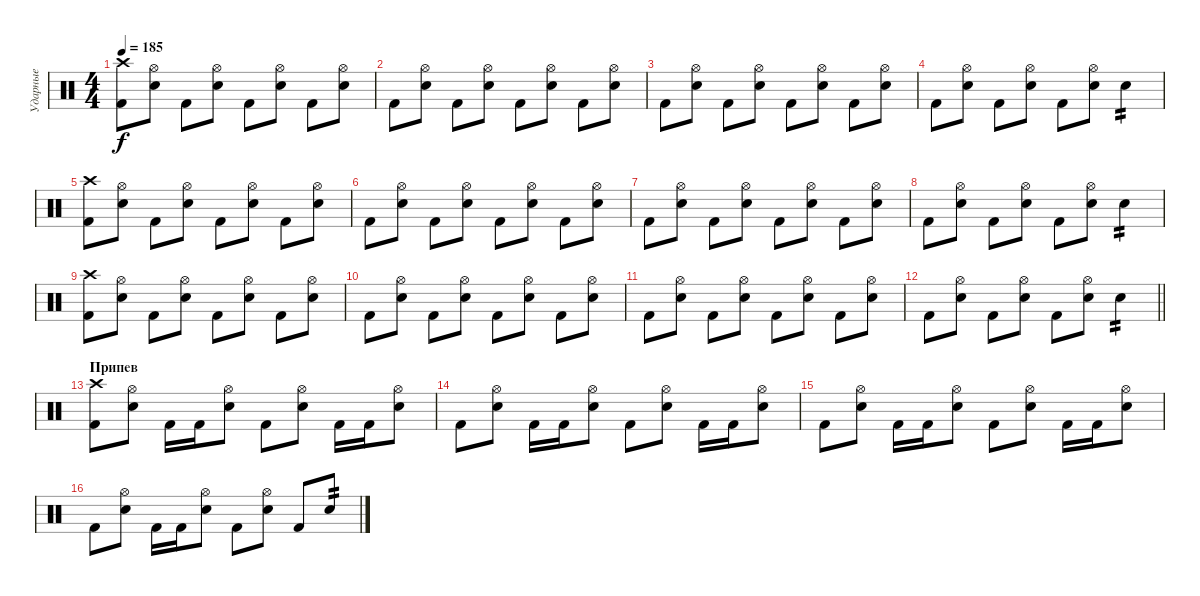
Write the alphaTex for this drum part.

\track ("Ударные" "Ударные") {instrument percussion}
\staff {score}
\articulation defaults
\ts (4 4)
\tempo 185
\clef neutral
\ks c
("Crash high (hit)" "Kick (hit) 2").8{dy f} ("Hi-Hat (open)" "Electric Snare (hit)").8 "Kick (hit) 2".8 ("Hi-Hat (open)" "Electric Snare (hit)").8 "Kick (hit) 2".8 ("Hi-Hat (open)" "Electric Snare (hit)").8 "Kick (hit) 2".8 ("Hi-Hat (open)" "Electric Snare (hit)").8 |
"Kick (hit) 2".8 ("Hi-Hat (open)" "Electric Snare (hit)").8 "Kick (hit) 2".8 ("Hi-Hat (open)" "Electric Snare (hit)").8 "Kick (hit) 2".8 ("Hi-Hat (open)" "Electric Snare (hit)").8 "Kick (hit) 2".8 ("Hi-Hat (open)" "Electric Snare (hit)").8 |
"Kick (hit) 2".8 ("Hi-Hat (open)" "Electric Snare (hit)").8 "Kick (hit) 2".8 ("Hi-Hat (open)" "Electric Snare (hit)").8 "Kick (hit) 2".8 ("Hi-Hat (open)" "Electric Snare (hit)").8 "Kick (hit) 2".8 ("Hi-Hat (open)" "Electric Snare (hit)").8 |
"Kick (hit) 2".8 ("Hi-Hat (open)" "Electric Snare (hit)").8 "Kick (hit) 2".8 ("Hi-Hat (open)" "Electric Snare (hit)").8 "Kick (hit) 2".8 ("Hi-Hat (open)" "Electric Snare (hit)").8 "Electric Snare (hit)".4{tp 2} |
("Crash high (hit)" "Kick (hit) 2").8 ("Hi-Hat (open)" "Electric Snare (hit)").8 "Kick (hit) 2".8 ("Hi-Hat (open)" "Electric Snare (hit)").8 "Kick (hit) 2".8 ("Hi-Hat (open)" "Electric Snare (hit)").8 "Kick (hit) 2".8 ("Hi-Hat (open)" "Electric Snare (hit)").8 |
"Kick (hit) 2".8 ("Hi-Hat (open)" "Electric Snare (hit)").8 "Kick (hit) 2".8 ("Hi-Hat (open)" "Electric Snare (hit)").8 "Kick (hit) 2".8 ("Hi-Hat (open)" "Electric Snare (hit)").8 "Kick (hit) 2".8 ("Hi-Hat (open)" "Electric Snare (hit)").8 |
"Kick (hit) 2".8 ("Hi-Hat (open)" "Electric Snare (hit)").8 "Kick (hit) 2".8 ("Hi-Hat (open)" "Electric Snare (hit)").8 "Kick (hit) 2".8 ("Hi-Hat (open)" "Electric Snare (hit)").8 "Kick (hit) 2".8 ("Hi-Hat (open)" "Electric Snare (hit)").8 |
"Kick (hit) 2".8 ("Hi-Hat (open)" "Electric Snare (hit)").8 "Kick (hit) 2".8 ("Hi-Hat (open)" "Electric Snare (hit)").8 "Kick (hit) 2".8 ("Hi-Hat (open)" "Electric Snare (hit)").8 "Electric Snare (hit)".4{tp 2} |
("Crash high (hit)" "Kick (hit) 2").8 ("Hi-Hat (open)" "Electric Snare (hit)").8 "Kick (hit) 2".8 ("Hi-Hat (open)" "Electric Snare (hit)").8 "Kick (hit) 2".8 ("Hi-Hat (open)" "Electric Snare (hit)").8 "Kick (hit) 2".8 ("Hi-Hat (open)" "Electric Snare (hit)").8 |
"Kick (hit) 2".8 ("Hi-Hat (open)" "Electric Snare (hit)").8 "Kick (hit) 2".8 ("Hi-Hat (open)" "Electric Snare (hit)").8 "Kick (hit) 2".8 ("Hi-Hat (open)" "Electric Snare (hit)").8 "Kick (hit) 2".8 ("Hi-Hat (open)" "Electric Snare (hit)").8 |
"Kick (hit) 2".8 ("Hi-Hat (open)" "Electric Snare (hit)").8 "Kick (hit) 2".8 ("Hi-Hat (open)" "Electric Snare (hit)").8 "Kick (hit) 2".8 ("Hi-Hat (open)" "Electric Snare (hit)").8 "Kick (hit) 2".8 ("Hi-Hat (open)" "Electric Snare (hit)").8 |
\barLineRight lightlight "Kick (hit) 2".8
("Hi-Hat (open)" "Electric Snare (hit)").8 "Kick (hit) 2".8 ("Hi-Hat (open)" "Electric Snare (hit)").8 "Kick (hit) 2".8 ("Hi-Hat (open)" "Electric Snare (hit)").8 "Electric Snare (hit)".4{tp 2} |
\section ("" "Припев")
("Crash high (hit)" "Kick (hit) 2").8 ("Hi-Hat (open)" "Electric Snare (hit)").8 "Kick (hit) 2".16 "Kick (hit) 2".16 ("Hi-Hat (open)" "Electric Snare (hit)").8 "Kick (hit) 2".8 ("Hi-Hat (open)" "Electric Snare (hit)").8 "Kick (hit) 2".16 "Kick (hit) 2".16 ("Hi-Hat (open)" "Electric Snare (hit)").8 |
"Kick (hit) 2".8 ("Hi-Hat (open)" "Electric Snare (hit)").8 "Kick (hit) 2".16 "Kick (hit) 2".16 ("Hi-Hat (open)" "Electric Snare (hit)").8 "Kick (hit) 2".8 ("Hi-Hat (open)" "Electric Snare (hit)").8 "Kick (hit) 2".16 "Kick (hit) 2".16 ("Hi-Hat (open)" "Electric Snare (hit)").8 |
"Kick (hit) 2".8 ("Hi-Hat (open)" "Electric Snare (hit)").8 "Kick (hit) 2".16 "Kick (hit) 2".16 ("Hi-Hat (open)" "Electric Snare (hit)").8 "Kick (hit) 2".8 ("Hi-Hat (open)" "Electric Snare (hit)").8 "Kick (hit) 2".16 "Kick (hit) 2".16 ("Hi-Hat (open)" "Electric Snare (hit)").8 |
"Kick (hit) 2".8 ("Hi-Hat (open)" "Electric Snare (hit)").8 "Kick (hit) 2".16 "Kick (hit) 2".16 ("Hi-Hat (open)" "Electric Snare (hit)").8 "Kick (hit) 2".8 ("Hi-Hat (open)" "Electric Snare (hit)").8 "Kick (hit) 2".8 "Electric Snare (hit)".8{tp 2}
